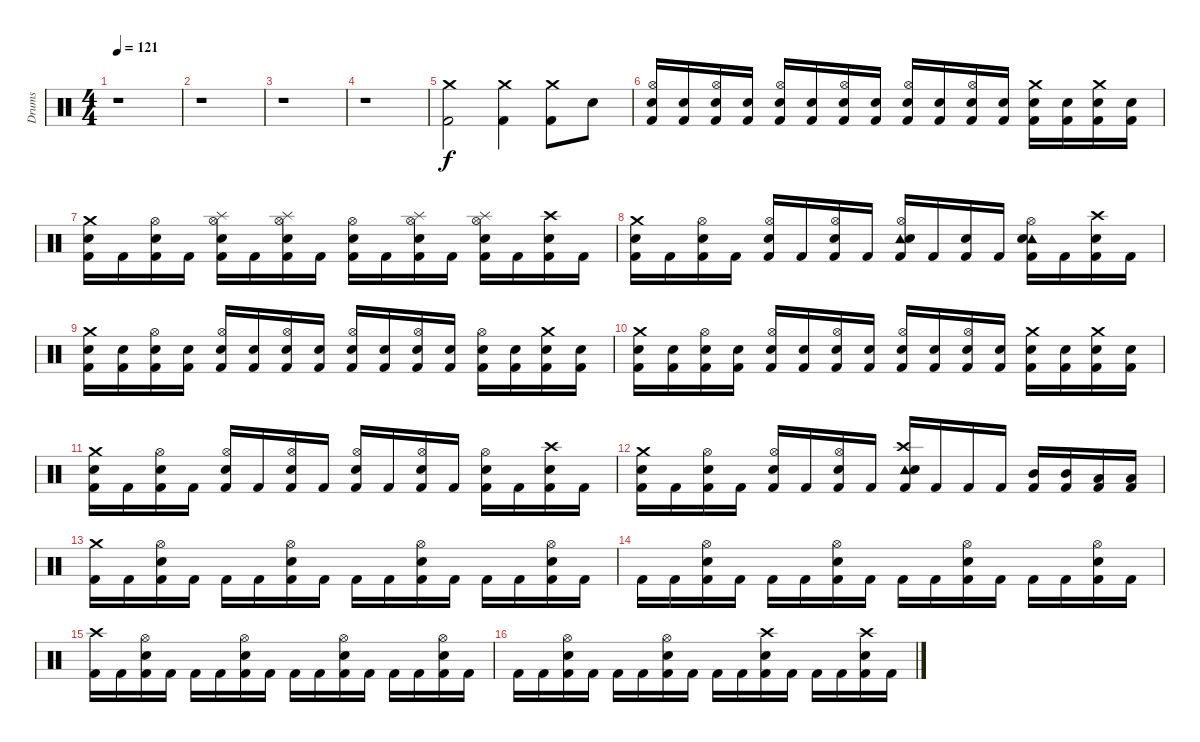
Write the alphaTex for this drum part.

\track ("Drums" "Drums") {instrument percussion}
\staff {score}
\articulation defaults
\ts (4 4)
\tempo 121
\clef neutral
\ks c
r.1{dy f} |
r.1 |
r.1 |
r.1 |
("Crash medium (hit)" "Kick (hit) 2").2 ("Crash medium (hit)" "Kick (hit) 2").4 ("Crash medium (hit)" "Kick (hit) 2").8 "Electric Snare (hit)".8 |
("Hi-Hat (open)" "Snare (hit) 2" "Kick (hit) 2").16 ("Snare (hit) 2" "Kick (hit) 2").16 ("Hi-Hat (open)" "Snare (hit) 2" "Kick (hit) 2").16 ("Snare (hit) 2" "Kick (hit) 2").16 ("Hi-Hat (open)" "Snare (hit) 2" "Kick (hit) 2").16 ("Snare (hit) 2" "Kick (hit) 2").16 ("Hi-Hat (open)" "Snare (hit) 2" "Kick (hit) 2").16 ("Snare (hit) 2" "Kick (hit) 2").16 ("Hi-Hat (open)" "Snare (hit) 2" "Kick (hit) 2").16 ("Snare (hit) 2" "Kick (hit) 2").16 ("Hi-Hat (open)" "Snare (hit) 2" "Kick (hit) 2").16 ("Snare (hit) 2" "Kick (hit) 2").16 ("Crash medium (hit)" "Snare (hit) 2" "Kick (hit) 2").16 ("Snare (hit) 2" "Kick (hit) 2").16 ("Crash medium (hit)" "Snare (hit) 2" "Kick (hit) 2").16 ("Snare (hit) 2" "Kick (hit) 2").16 |
("Crash medium (hit)" "Snare (hit) 2" "Kick (hit) 2").16 "Kick (hit) 2".16 ("Hi-Hat (open)" "Snare (hit) 2" "Kick (hit) 2").16 "Kick (hit) 2".16 ("Hi-Hat (open)" "Splash (hit)" "Snare (hit) 2" "Kick (hit) 2").16 "Kick (hit) 2".16 ("Hi-Hat (open)" "Splash (hit)" "Snare (hit) 2" "Kick (hit) 2").16 "Kick (hit) 2".16 ("Hi-Hat (open)" "Snare (hit) 2" "Kick (hit) 2").16 "Kick (hit) 2".16 ("Hi-Hat (open)" "Splash (hit)" "Snare (hit) 2" "Kick (hit) 2").16 "Kick (hit) 2".16 ("Hi-Hat (open)" "Splash (hit)" "Snare (hit) 2" "Kick (hit) 2").16 "Kick (hit) 2".16 ("Crash high (hit)" "Snare (hit) 2" "Kick (hit) 2").16 "Kick (hit) 2".16 |
("Crash medium (hit)" "Snare (hit) 2" "Kick (hit) 2").16 "Kick (hit) 2".16 ("Hi-Hat (open)" "Snare (hit) 2" "Kick (hit) 2").16 "Kick (hit) 2".16 ("Hi-Hat (open)" "Snare (hit) 2" "Kick (hit) 2").16 "Kick (hit) 2".16 ("Hi-Hat (open)" "Snare (hit) 2" "Kick (hit) 2").16 "Kick (hit) 2".16 ("Hi-Hat (open)" "Tambourine (hit)" "Snare (hit) 2" "Kick (hit) 2").16 "Kick (hit) 2".16 ("Snare (hit) 2" "Kick (hit) 2").16 "Kick (hit) 2".16 ("Hi-Hat (open)" "Tambourine (hit)" "Snare (hit) 2" "Kick (hit) 2").16 "Kick (hit) 2".16 ("Crash high (hit)" "Snare (hit) 2" "Kick (hit) 2").16 "Kick (hit) 2".16 |
("Crash medium (hit)" "Snare (hit) 2" "Kick (hit) 2").16 ("Snare (hit) 2" "Kick (hit) 2").16 ("Hi-Hat (open)" "Snare (hit) 2" "Kick (hit) 2").16 ("Snare (hit) 2" "Kick (hit) 2").16 ("Hi-Hat (open)" "Snare (hit) 2" "Kick (hit) 2").16 ("Snare (hit) 2" "Kick (hit) 2").16 ("Hi-Hat (open)" "Snare (hit) 2" "Kick (hit) 2").16 ("Snare (hit) 2" "Kick (hit) 2").16 ("Hi-Hat (open)" "Snare (hit) 2" "Kick (hit) 2").16 ("Snare (hit) 2" "Kick (hit) 2").16 ("Hi-Hat (open)" "Snare (hit) 2" "Kick (hit) 2").16 ("Snare (hit) 2" "Kick (hit) 2").16 ("Hi-Hat (open)" "Snare (hit) 2" "Kick (hit) 2").16 ("Snare (hit) 2" "Kick (hit) 2").16 ("Crash medium (hit)" "Snare (hit) 2" "Kick (hit) 2").16 ("Snare (hit) 2" "Kick (hit) 2").16 |
("Crash medium (hit)" "Snare (hit) 2" "Kick (hit) 2").16 ("Snare (hit) 2" "Kick (hit) 2").16 ("Hi-Hat (open)" "Snare (hit) 2" "Kick (hit) 2").16 ("Snare (hit) 2" "Kick (hit) 2").16 ("Hi-Hat (open)" "Snare (hit) 2" "Kick (hit) 2").16 ("Snare (hit) 2" "Kick (hit) 2").16 ("Hi-Hat (open)" "Snare (hit) 2" "Kick (hit) 2").16 ("Snare (hit) 2" "Kick (hit) 2").16 ("Hi-Hat (open)" "Snare (hit) 2" "Kick (hit) 2").16 ("Snare (hit) 2" "Kick (hit) 2").16 ("Hi-Hat (open)" "Snare (hit) 2" "Kick (hit) 2").16 ("Snare (hit) 2" "Kick (hit) 2").16 ("Crash medium (hit)" "Snare (hit) 2" "Kick (hit) 2").16 ("Snare (hit) 2" "Kick (hit) 2").16 ("Crash medium (hit)" "Snare (hit) 2" "Kick (hit) 2").16 ("Snare (hit) 2" "Kick (hit) 2").16 |
("Crash medium (hit)" "Snare (hit) 2" "Kick (hit) 2").16 "Kick (hit) 2".16 ("Hi-Hat (open)" "Snare (hit) 2" "Kick (hit) 2").16 "Kick (hit) 2".16 ("Hi-Hat (open)" "Snare (hit) 2" "Kick (hit) 2").16 "Kick (hit) 2".16 ("Hi-Hat (open)" "Snare (hit) 2" "Kick (hit) 2").16 "Kick (hit) 2".16 ("Hi-Hat (open)" "Snare (hit) 2" "Kick (hit) 2").16 "Kick (hit) 2".16 ("Hi-Hat (open)" "Snare (hit) 2" "Kick (hit) 2").16 "Kick (hit) 2".16 ("Hi-Hat (open)" "Snare (hit) 2" "Kick (hit) 2").16 "Kick (hit) 2".16 ("Crash high (hit)" "Snare (hit) 2" "Kick (hit) 2").16 "Kick (hit) 2".16 |
("Crash medium (hit)" "Snare (hit) 2" "Kick (hit) 2").16 "Kick (hit) 2".16 ("Hi-Hat (open)" "Snare (hit) 2" "Kick (hit) 2").16 "Kick (hit) 2".16 ("Hi-Hat (open)" "Snare (hit) 2" "Kick (hit) 2").16 "Kick (hit) 2".16 ("Hi-Hat (open)" "Snare (hit) 2" "Kick (hit) 2").16 "Kick (hit) 2".16 ("Crash high (hit)" "Tambourine (hit)" "Snare (hit) 2" "Kick (hit) 2").16 "Kick (hit) 2".16 "Kick (hit) 2".16 "Kick (hit) 2".16 ("Mid Tom (hit)" "Kick (hit) 2").16 ("Mid Tom (hit)" "Kick (hit) 2").16 ("Low Tom (hit)" "Kick (hit) 2").16 ("Low Tom (hit)" "Kick (hit) 2").16 |
("Crash medium (hit)" "Kick (hit) 2").16 "Kick (hit) 2".16 ("Hi-Hat (open)" "Electric Snare (hit)" "Kick (hit) 2").16 "Kick (hit) 2".16 "Kick (hit) 2".16 "Kick (hit) 2".16 ("Hi-Hat (open)" "Electric Snare (hit)" "Kick (hit) 2").16 "Kick (hit) 2".16 "Kick (hit) 2".16 "Kick (hit) 2".16 ("Hi-Hat (open)" "Electric Snare (hit)" "Kick (hit) 2").16 "Kick (hit) 2".16 "Kick (hit) 2".16 "Kick (hit) 2".16 ("Hi-Hat (open)" "Electric Snare (hit)" "Kick (hit) 2").16 "Kick (hit) 2".16 |
"Kick (hit) 2".16 "Kick (hit) 2".16 ("Hi-Hat (open)" "Electric Snare (hit)" "Kick (hit) 2").16 "Kick (hit) 2".16 "Kick (hit) 2".16 "Kick (hit) 2".16 ("Hi-Hat (open)" "Electric Snare (hit)" "Kick (hit) 2").16 "Kick (hit) 2".16 "Kick (hit) 2".16 "Kick (hit) 2".16 ("Hi-Hat (open)" "Electric Snare (hit)" "Kick (hit) 2").16 "Kick (hit) 2".16 "Kick (hit) 2".16 "Kick (hit) 2".16 ("Hi-Hat (open)" "Electric Snare (hit)" "Kick (hit) 2").16 "Kick (hit) 2".16 |
("Crash high (hit)" "Kick (hit) 2").16 "Kick (hit) 2".16 ("Hi-Hat (open)" "Electric Snare (hit)" "Kick (hit) 2").16 "Kick (hit) 2".16 "Kick (hit) 2".16 "Kick (hit) 2".16 ("Hi-Hat (open)" "Electric Snare (hit)" "Kick (hit) 2").16 "Kick (hit) 2".16 "Kick (hit) 2".16 "Kick (hit) 2".16 ("Hi-Hat (open)" "Electric Snare (hit)" "Kick (hit) 2").16 "Kick (hit) 2".16 "Kick (hit) 2".16 "Kick (hit) 2".16 ("Hi-Hat (open)" "Electric Snare (hit)" "Kick (hit) 2").16 "Kick (hit) 2".16 |
"Kick (hit) 2".16 "Kick (hit) 2".16 ("Hi-Hat (open)" "Electric Snare (hit)" "Kick (hit) 2").16 "Kick (hit) 2".16 "Kick (hit) 2".16 "Kick (hit) 2".16 ("Hi-Hat (open)" "Electric Snare (hit)" "Kick (hit) 2").16 "Kick (hit) 2".16 "Kick (hit) 2".16 "Kick (hit) 2".16 ("Crash high (hit)" "Electric Snare (hit)" "Kick (hit) 2").16 "Kick (hit) 2".16 "Kick (hit) 2".16 "Kick (hit) 2".16 ("Crash high (hit)" "Electric Snare (hit)" "Kick (hit) 2").16 "Kick (hit) 2".16
